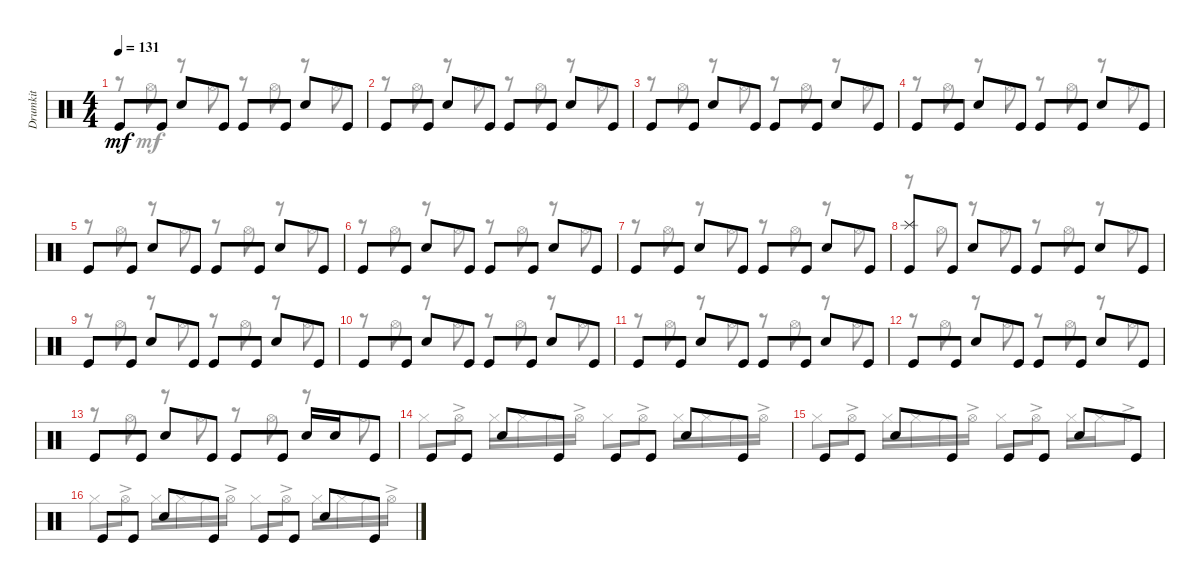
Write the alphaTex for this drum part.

\track ("Drumkit" "Drumkit") {instrument percussion}
\staff {score}
\articulation defaults
\voice
\ts (4 4)
\tempo 131
\clef neutral
\ks c "Kick (hit)".8{dy mf} "Kick (hit)".8 "Snare (hit) 2".8 "Kick (hit)".8 "Kick (hit)".8 "Kick (hit)".8 "Snare (hit) 2".8 "Kick (hit)".8
|
"Kick (hit)".8 "Kick (hit)".8 "Snare (hit) 2".8 "Kick (hit)".8 "Kick (hit)".8 "Kick (hit)".8 "Snare (hit) 2".8 "Kick (hit)".8 |
"Kick (hit)".8 "Kick (hit)".8 "Snare (hit) 2".8 "Kick (hit)".8 "Kick (hit)".8 "Kick (hit)".8 "Snare (hit) 2".8 "Kick (hit)".8 |
"Kick (hit)".8 "Kick (hit)".8 "Snare (hit) 2".8 "Kick (hit)".8 "Kick (hit)".8 "Kick (hit)".8 "Snare (hit) 2".8 "Kick (hit)".8 |
"Kick (hit)".8 "Kick (hit)".8 "Snare (hit) 2".8 "Kick (hit)".8 "Kick (hit)".8 "Kick (hit)".8 "Snare (hit) 2".8 "Kick (hit)".8 |
"Kick (hit)".8 "Kick (hit)".8 "Snare (hit) 2".8 "Kick (hit)".8 "Kick (hit)".8 "Kick (hit)".8 "Snare (hit) 2".8 "Kick (hit)".8 |
"Kick (hit)".8 "Kick (hit)".8 "Snare (hit) 2".8 "Kick (hit)".8 "Kick (hit)".8 "Kick (hit)".8 "Snare (hit) 2".8 "Kick (hit)".8 |
("Kick (hit)" "Splash (hit)").8 "Kick (hit)".8 "Snare (hit) 2".8 "Kick (hit)".8 "Kick (hit)".8 "Kick (hit)".8 "Snare (hit) 2".8 "Kick (hit)".8 |
"Kick (hit)".8 "Kick (hit)".8 "Snare (hit) 2".8 "Kick (hit)".8 "Kick (hit)".8 "Kick (hit)".8 "Snare (hit) 2".8 "Kick (hit)".8 |
"Kick (hit)".8 "Kick (hit)".8 "Snare (hit) 2".8 "Kick (hit)".8 "Kick (hit)".8 "Kick (hit)".8 "Snare (hit) 2".8 "Kick (hit)".8 |
"Kick (hit)".8 "Kick (hit)".8 "Snare (hit) 2".8 "Kick (hit)".8 "Kick (hit)".8 "Kick (hit)".8 "Snare (hit) 2".8 "Kick (hit)".8 |
"Kick (hit)".8 "Kick (hit)".8 "Snare (hit) 2".8 "Kick (hit)".8 "Kick (hit)".8 "Kick (hit)".8 "Snare (hit) 2".8 "Kick (hit)".8 |
"Kick (hit)".8 "Kick (hit)".8 "Snare (hit) 2".8 "Kick (hit)".8 "Kick (hit)".8 "Kick (hit)".8 "Snare (hit) 2".16 "Snare (hit) 2".16 "Kick (hit)".8 |
"Kick (hit)".8 "Kick (hit)".8 "Snare (hit) 2".8 "Kick (hit)".8 "Kick (hit)".8 "Kick (hit)".8 "Snare (hit) 2".8 "Kick (hit)".8 |
"Kick (hit)".8 "Kick (hit)".8 "Snare (hit) 2".8 "Kick (hit)".8 "Kick (hit)".8 "Kick (hit)".8 "Snare (hit) 2".8 "Kick (hit)".8 |
"Kick (hit)".8 "Kick (hit)".8 "Snare (hit) 2".8 "Kick (hit)".8 "Kick (hit)".8 "Kick (hit)".8 "Snare (hit) 2".8 "Kick (hit)".8
\voice
\clef neutral
\ottava regular
\simile none
\ks c
r.8{dy mf} "Hi-Hat (open)".8 r.8 "Hi-Hat (open)".8 r.8 "Hi-Hat (open)".8 r.8 "Hi-Hat (open)".8 |
r.8 "Hi-Hat (open)".8 r.8 "Hi-Hat (open)".8 r.8 "Hi-Hat (open)".8 r.8 "Hi-Hat (open)".8 |
r.8 "Hi-Hat (open)".8 r.8 "Hi-Hat (open)".8 r.8 "Hi-Hat (open)".8 r.8 "Hi-Hat (open)".8 |
r.8 "Hi-Hat (open)".8 r.8 "Hi-Hat (open)".8 r.8 "Hi-Hat (open)".8 r.8 "Hi-Hat (open)".8 |
r.8 "Hi-Hat (open)".8 r.8 "Hi-Hat (open)".8 r.8 "Hi-Hat (open)".8 r.8 "Hi-Hat (open)".8 |
r.8 "Hi-Hat (open)".8 r.8 "Hi-Hat (open)".8 r.8 "Hi-Hat (open)".8 r.8 "Hi-Hat (open)".8 |
r.8 "Hi-Hat (open)".8 r.8 "Hi-Hat (open)".8 r.8 "Hi-Hat (open)".8 r.8 "Hi-Hat (open)".8 |
r.8 "Hi-Hat (open)".8 r.8 "Hi-Hat (open)".8 r.8 "Hi-Hat (open)".8 r.8 "Hi-Hat (open)".8 |
r.8 "Hi-Hat (open)".8 r.8 "Hi-Hat (open)".8 r.8 "Hi-Hat (open)".8 r.8 "Hi-Hat (open)".8 |
r.8 "Hi-Hat (open)".8 r.8 "Hi-Hat (open)".8 r.8 "Hi-Hat (open)".8 r.8 "Hi-Hat (open)".8 |
r.8 "Hi-Hat (open)".8 r.8 "Hi-Hat (open)".8 r.8 "Hi-Hat (open)".8 r.8 "Hi-Hat (open)".8 |
r.8 "Hi-Hat (open)".8 r.8 "Hi-Hat (open)".8 r.8 "Hi-Hat (open)".8 r.8 "Hi-Hat (open)".8 |
r.8 "Hi-Hat (open)".8 r.8 "Hi-Hat (open)".8 r.8 "Hi-Hat (open)".8 r.8 "Hi-Hat (open)".8 |
"Hi-Hat (closed)".8 "Hi-Hat (open)"{ac}.8 "Hi-Hat (closed)".16 "Hi-Hat (closed)".16 "Hi-Hat (closed)".16 "Hi-Hat (open)"{ac}.16 "Hi-Hat (closed)".8 "Hi-Hat (open)"{ac}.8 "Hi-Hat (closed)".16 "Hi-Hat (closed)".16 "Hi-Hat (closed)".16 "Hi-Hat (open)"{ac}.16 |
"Hi-Hat (closed)".8 "Hi-Hat (open)"{ac}.8 "Hi-Hat (closed)".16 "Hi-Hat (closed)".16 "Hi-Hat (closed)".16 "Hi-Hat (open)"{ac}.16 "Hi-Hat (closed)".8 "Hi-Hat (open)"{ac}.8 "Hi-Hat (closed)".16 "Hi-Hat (closed)".16 "Hi-Hat (open)"{ac}.8 |
"Hi-Hat (closed)".8 "Hi-Hat (open)"{ac}.8 "Hi-Hat (closed)".16 "Hi-Hat (closed)".16 "Hi-Hat (closed)".16 "Hi-Hat (open)"{ac}.16 "Hi-Hat (closed)".8 "Hi-Hat (open)"{ac}.8 "Hi-Hat (closed)".16 "Hi-Hat (closed)".16 "Hi-Hat (closed)".16 "Hi-Hat (open)"{ac}.16
